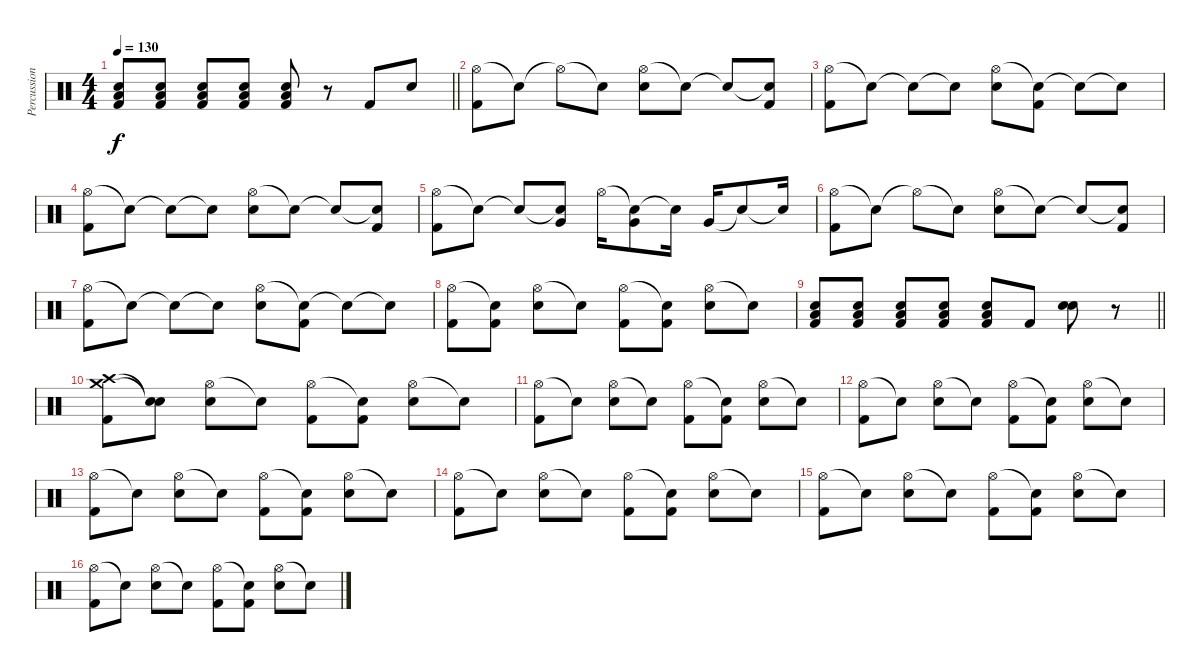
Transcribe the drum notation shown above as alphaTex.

\track ("Percussion" "Percussion") {instrument percussion}
\staff {score}
\articulation defaults
\ts (4 4)
\tempo 130
\clef neutral
\barLineRight lightlight
\ks c
("Low Floor Tom (hit)" "Electric Snare (hit)" "Kick (hit) 2").8{dy f volume 14} ("Low Floor Tom (hit)" "Electric Snare (hit)" "Kick (hit) 2").8 ("Low Floor Tom (hit)" "Electric Snare (hit)" "Kick (hit) 2").8 ("Low Floor Tom (hit)" "Electric Snare (hit)" "Kick (hit) 2").8 ("Low Floor Tom (hit)" "Electric Snare (hit)" "Kick (hit) 2").8 r.8 "Kick (hit) 2".8 "Electric Snare (hit)".8 |
("Hi-Hat (open)" "Kick (hit) 2").8 "Snare (hit)"{t}.8 "Hi-Hat (open)"{t}.8 "Snare (hit)"{t}.8 ("Hi-Hat (open)" "Electric Snare (hit)").8 "Snare (hit)"{t}.8 "Snare (hit)"{t}.8 ("Snare (hit)"{t} "Kick (hit) 2").8 |
("Hi-Hat (open)" "Kick (hit) 2").8 "Snare (hit)"{t}.8 "Snare (hit)"{t}.8 "Snare (hit)"{t}.8 ("Hi-Hat (open)" "Electric Snare (hit)").8 ("Snare (hit)"{t} "Kick (hit) 2").8 "Snare (hit)"{t}.8 "Snare (hit)"{t}.8 |
("Hi-Hat (open)" "Kick (hit) 2").8 "Snare (hit)"{t}.8 "Snare (hit)"{t}.8 "Snare (hit)"{t}.8 ("Hi-Hat (open)" "Electric Snare (hit)").8 "Snare (hit)"{t}.8 "Snare (hit)"{t}.8 ("Snare (hit)"{t} "Kick (hit) 2").8 |
("Hi-Hat (open)" "Kick (hit) 2").8 "Snare (hit)"{t}.8 "Snare (hit)"{t}.8 ("Snare (hit)"{t} "Very Low Tom (hit)").8 "Hi-Hat (open)".16 ("Snare (hit)"{t} "Very Low Tom (hit)").8 "Snare (hit)"{t}.16 "Very Low Tom (hit)".16 "Snare (hit)"{t}.8 "Snare (hit)"{t}.16 |
("Hi-Hat (open)" "Kick (hit) 2").8 "Snare (hit)"{t}.8 "Hi-Hat (open)"{t}.8 "Snare (hit)"{t}.8 ("Hi-Hat (open)" "Electric Snare (hit)").8 "Snare (hit)"{t}.8 "Snare (hit)"{t}.8 ("Snare (hit)"{t} "Kick (hit) 2").8 |
("Hi-Hat (open)" "Kick (hit) 2").8 "Snare (hit)"{t}.8 "Snare (hit)"{t}.8 "Snare (hit)"{t}.8 ("Hi-Hat (open)" "Electric Snare (hit)").8 ("Snare (hit)"{t} "Kick (hit) 2").8 "Snare (hit)"{t}.8 "Snare (hit)"{t}.8 |
("Hi-Hat (open)" "Kick (hit) 2").8 ("Snare (hit)"{t} "Kick (hit) 2").8 ("Hi-Hat (open)" "Electric Snare (hit)").8 "Snare (hit)"{t}.8 ("Hi-Hat (open)" "Kick (hit) 2").8 ("Snare (hit)"{t} "Kick (hit) 2").8 ("Hi-Hat (open)" "Electric Snare (hit)").8 "Snare (hit)"{t}.8 |
\barLineRight lightlight
("Low Floor Tom (hit)" "Electric Snare (hit)" "Kick (hit) 2").8 ("Low Floor Tom (hit)" "Electric Snare (hit)" "Kick (hit) 2").8 ("Low Floor Tom (hit)" "Electric Snare (hit)" "Kick (hit) 2").8 ("Low Floor Tom (hit)" "Electric Snare (hit)" "Kick (hit) 2").8 ("Low Floor Tom (hit)" "Electric Snare (hit)" "Kick (hit) 2").8 "Kick (hit) 2".8 ("Electric Snare (hit)" "Electric Snare (hit)").8 r.8 |
("Crash medium (hit)" "Crash high (hit)" "Kick (hit) 2").8 ("Snare (hit)"{t} "Snare (hit)"{t}).8 ("Hi-Hat (open)" "Electric Snare (hit)").8 "Snare (hit)"{t}.8 ("Hi-Hat (open)" "Kick (hit) 2").8 ("Snare (hit)"{t} "Kick (hit) 2").8 ("Hi-Hat (open)" "Electric Snare (hit)").8 "Snare (hit)"{t}.8 |
("Hi-Hat (open)" "Kick (hit) 2").8 "Snare (hit)"{t}.8 ("Hi-Hat (open)" "Electric Snare (hit)").8 "Snare (hit)"{t}.8 ("Hi-Hat (open)" "Kick (hit) 2").8 ("Snare (hit)"{t} "Kick (hit) 2").8 ("Hi-Hat (open)" "Electric Snare (hit)").8 "Snare (hit)"{t}.8 |
("Hi-Hat (open)" "Kick (hit) 2").8 "Snare (hit)"{t}.8 ("Hi-Hat (open)" "Electric Snare (hit)").8 "Snare (hit)"{t}.8 ("Hi-Hat (open)" "Kick (hit) 2").8 ("Snare (hit)"{t} "Kick (hit) 2").8 ("Hi-Hat (open)" "Electric Snare (hit)").8 "Snare (hit)"{t}.8 |
("Hi-Hat (open)" "Kick (hit) 2").8 "Snare (hit)"{t}.8 ("Hi-Hat (open)" "Electric Snare (hit)").8 "Snare (hit)"{t}.8 ("Hi-Hat (open)" "Kick (hit) 2").8 ("Snare (hit)"{t} "Kick (hit) 2").8 ("Hi-Hat (open)" "Electric Snare (hit)").8 "Snare (hit)"{t}.8 |
("Hi-Hat (open)" "Kick (hit) 2").8 "Snare (hit)"{t}.8 ("Hi-Hat (open)" "Electric Snare (hit)").8 "Snare (hit)"{t}.8 ("Hi-Hat (open)" "Kick (hit) 2").8 ("Snare (hit)"{t} "Kick (hit) 2").8 ("Hi-Hat (open)" "Electric Snare (hit)").8 "Snare (hit)"{t}.8 |
("Hi-Hat (open)" "Kick (hit) 2").8 "Snare (hit)"{t}.8 ("Hi-Hat (open)" "Electric Snare (hit)").8 "Snare (hit)"{t}.8 ("Hi-Hat (open)" "Kick (hit) 2").8 ("Snare (hit)"{t} "Kick (hit) 2").8 ("Hi-Hat (open)" "Electric Snare (hit)").8 "Snare (hit)"{t}.8 |
("Hi-Hat (open)" "Kick (hit) 2").8 "Snare (hit)"{t}.8 ("Hi-Hat (open)" "Electric Snare (hit)").8 "Snare (hit)"{t}.8 ("Hi-Hat (open)" "Kick (hit) 2").8 ("Snare (hit)"{t} "Kick (hit) 2").8 ("Hi-Hat (open)" "Electric Snare (hit)").8 "Snare (hit)"{t}.8
